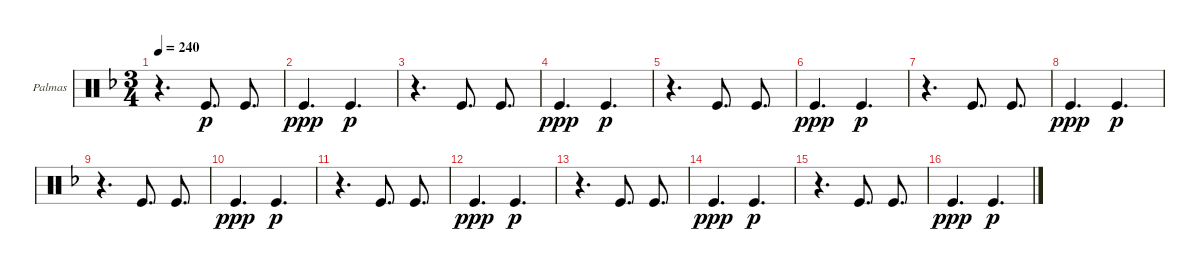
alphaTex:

\defaultSystemsLayout 4
\bracketExtendMode groupsimilarinstruments
\firstSystemTrackNameOrientation horizontal
\otherSystemsTrackNameOrientation horizontal
\track ("Palmas" "Palmas") {instrument percussion}
\staff {score}
\articulation defaults
\ts (3 4)
\tempo 240
\clef neutral
\ks f
r.4{d dy p} "Kick (hit)".8{d} "Kick (hit)".8{d} |
"Kick (hit)".4{d dy ppp} "Kick (hit)".4{d dy p} |
r.4{d} "Kick (hit)".8{d} "Kick (hit)".8{d} |
"Kick (hit)".4{d dy ppp} "Kick (hit)".4{d dy p} |
r.4{d} "Kick (hit)".8{d} "Kick (hit)".8{d} |
"Kick (hit)".4{d dy ppp} "Kick (hit)".4{d dy p} |
r.4{d} "Kick (hit)".8{d} "Kick (hit)".8{d} |
"Kick (hit)".4{d dy ppp} "Kick (hit)".4{d dy p} |
r.4{d} "Kick (hit)".8{d} "Kick (hit)".8{d} |
"Kick (hit)".4{d dy ppp} "Kick (hit)".4{d dy p} |
r.4{d} "Kick (hit)".8{d} "Kick (hit)".8{d} |
"Kick (hit)".4{d dy ppp} "Kick (hit)".4{d dy p} |
r.4{d} "Kick (hit)".8{d} "Kick (hit)".8{d} |
"Kick (hit)".4{d dy ppp} "Kick (hit)".4{d dy p} |
r.4{d} "Kick (hit)".8{d} "Kick (hit)".8{d} |
"Kick (hit)".4{d dy ppp} "Kick (hit)".4{d dy p}
